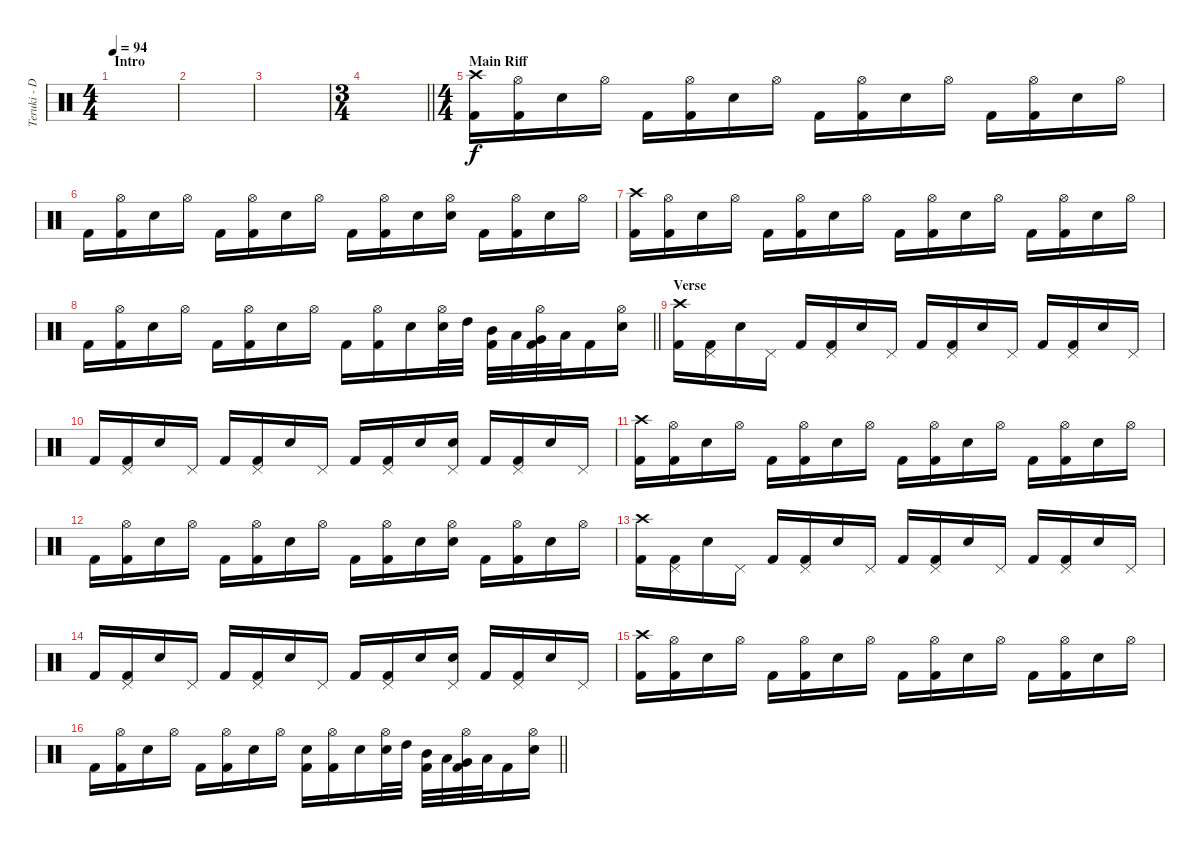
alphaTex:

\track ("Teruki - Drums" "Teruki - D") {instrument percussion}
\staff {score}
\articulation defaults
\ts (4 4)
\section ("" "Intro")
\tempo 94
\clef neutral
\ks c
|
|
|
\ts (3 4)
\barLineRight lightlight
|
\ts (4 4)
\section ("" "Main Riff")
("Crash high (hit)" "Kick (hit) 2").16 ("Hi-Hat (open)" "Kick (hit) 2").16 "Electric Snare (hit)".16 "Hi-Hat (open)".16 "Kick (hit) 2".16 ("Hi-Hat (open)" "Kick (hit) 2").16 "Electric Snare (hit)".16 "Hi-Hat (open)".16 "Kick (hit) 2".16 ("Hi-Hat (open)" "Kick (hit) 2").16 "Electric Snare (hit)".16 "Hi-Hat (open)".16 "Kick (hit) 2".16 ("Hi-Hat (open)" "Kick (hit) 2").16 "Electric Snare (hit)".16 "Hi-Hat (open)".16 |
"Kick (hit) 2".16 ("Hi-Hat (open)" "Kick (hit) 2").16 "Electric Snare (hit)".16 "Hi-Hat (open)".16 "Kick (hit) 2".16 ("Hi-Hat (open)" "Kick (hit) 2").16 "Electric Snare (hit)".16 "Hi-Hat (open)".16 "Kick (hit) 2".16 ("Hi-Hat (open)" "Kick (hit) 2").16 "Electric Snare (hit)".16 ("Hi-Hat (open)" "Electric Snare (hit)").16 "Kick (hit) 2".16 ("Hi-Hat (open)" "Kick (hit) 2").16 "Electric Snare (hit)".16 "Hi-Hat (open)".16 |
("Crash high (hit)" "Kick (hit) 2").16 ("Hi-Hat (open)" "Kick (hit) 2").16 "Electric Snare (hit)".16 "Hi-Hat (open)".16 "Kick (hit) 2".16 ("Hi-Hat (open)" "Kick (hit) 2").16 "Electric Snare (hit)".16 "Hi-Hat (open)".16 "Kick (hit) 2".16 ("Hi-Hat (open)" "Kick (hit) 2").16 "Electric Snare (hit)".16 "Hi-Hat (open)".16 "Kick (hit) 2".16 ("Hi-Hat (open)" "Kick (hit) 2").16 "Electric Snare (hit)".16 "Hi-Hat (open)".16 |
\barLineRight lightlight "Kick (hit) 2".16
("Hi-Hat (open)" "Kick (hit) 2").16 "Electric Snare (hit)".16 "Hi-Hat (open)".16 "Kick (hit) 2".16 ("Hi-Hat (open)" "Kick (hit) 2").16 "Electric Snare (hit)".16 "Hi-Hat (open)".16 "Kick (hit) 2".16 ("Hi-Hat (open)" "Kick (hit) 2").16 "Electric Snare (hit)".16 ("Hi-Hat (open)" "Electric Snare (hit)").32 "High Tom (hit)".32 ("Mid Tom (hit)" "Kick (hit) 2").32 "Low Tom (hit)".32 ("Hi-Hat (open)" "Very Low Tom (hit)" "Kick (hit) 2").32 "Low Floor Tom (hit)".32 "Kick (hit) 2".16 ("Hi-Hat (open)" "Electric Snare (hit)").16 |
\section ("" "Verse")
("Crash high (hit)" "Kick (hit) 2").16 ("Pedal Hi-Hat (hit)" "Kick (hit) 2").16 "Electric Snare (hit)".16 "Pedal Hi-Hat (hit)".16 "Kick (hit) 2".16 ("Pedal Hi-Hat (hit)" "Kick (hit) 2").16 "Electric Snare (hit)".16 "Pedal Hi-Hat (hit)".16 "Kick (hit) 2".16 ("Pedal Hi-Hat (hit)" "Kick (hit) 2").16 "Electric Snare (hit)".16 "Pedal Hi-Hat (hit)".16 "Kick (hit) 2".16 ("Pedal Hi-Hat (hit)" "Kick (hit) 2").16 "Electric Snare (hit)".16 "Pedal Hi-Hat (hit)".16 |
"Kick (hit) 2".16 ("Pedal Hi-Hat (hit)" "Kick (hit) 2").16 "Electric Snare (hit)".16 "Pedal Hi-Hat (hit)".16 "Kick (hit) 2".16 ("Pedal Hi-Hat (hit)" "Kick (hit) 2").16 "Electric Snare (hit)".16 "Pedal Hi-Hat (hit)".16 "Kick (hit) 2".16 ("Pedal Hi-Hat (hit)" "Kick (hit) 2").16 "Electric Snare (hit)".16 ("Pedal Hi-Hat (hit)" "Electric Snare (hit)").16 "Kick (hit) 2".16 ("Pedal Hi-Hat (hit)" "Kick (hit) 2").16 "Electric Snare (hit)".16 "Pedal Hi-Hat (hit)".16 |
("Crash high (hit)" "Kick (hit) 2").16 ("Hi-Hat (open)" "Kick (hit) 2").16 "Electric Snare (hit)".16 "Hi-Hat (open)".16 "Kick (hit) 2".16 ("Hi-Hat (open)" "Kick (hit) 2").16 "Electric Snare (hit)".16 "Hi-Hat (open)".16 "Kick (hit) 2".16 ("Hi-Hat (open)" "Kick (hit) 2").16 "Electric Snare (hit)".16 "Hi-Hat (open)".16 "Kick (hit) 2".16 ("Hi-Hat (open)" "Kick (hit) 2").16 "Electric Snare (hit)".16 "Hi-Hat (open)".16 |
"Kick (hit) 2".16 ("Hi-Hat (open)" "Kick (hit) 2").16 "Electric Snare (hit)".16 "Hi-Hat (open)".16 "Kick (hit) 2".16 ("Hi-Hat (open)" "Kick (hit) 2").16 "Electric Snare (hit)".16 "Hi-Hat (open)".16 "Kick (hit) 2".16 ("Hi-Hat (open)" "Kick (hit) 2").16 "Electric Snare (hit)".16 ("Hi-Hat (open)" "Electric Snare (hit)").16 "Kick (hit) 2".16 ("Hi-Hat (open)" "Kick (hit) 2").16 "Electric Snare (hit)".16 "Hi-Hat (open)".16 |
("Crash high (hit)" "Kick (hit) 2").16 ("Pedal Hi-Hat (hit)" "Kick (hit) 2").16 "Electric Snare (hit)".16 "Pedal Hi-Hat (hit)".16 "Kick (hit) 2".16 ("Pedal Hi-Hat (hit)" "Kick (hit) 2").16 "Electric Snare (hit)".16 "Pedal Hi-Hat (hit)".16 "Kick (hit) 2".16 ("Pedal Hi-Hat (hit)" "Kick (hit) 2").16 "Electric Snare (hit)".16 "Pedal Hi-Hat (hit)".16 "Kick (hit) 2".16 ("Pedal Hi-Hat (hit)" "Kick (hit) 2").16 "Electric Snare (hit)".16 "Pedal Hi-Hat (hit)".16 |
"Kick (hit) 2".16 ("Pedal Hi-Hat (hit)" "Kick (hit) 2").16 "Electric Snare (hit)".16 "Pedal Hi-Hat (hit)".16 "Kick (hit) 2".16 ("Pedal Hi-Hat (hit)" "Kick (hit) 2").16 "Electric Snare (hit)".16 "Pedal Hi-Hat (hit)".16 "Kick (hit) 2".16 ("Pedal Hi-Hat (hit)" "Kick (hit) 2").16 "Electric Snare (hit)".16 ("Pedal Hi-Hat (hit)" "Electric Snare (hit)").16 "Kick (hit) 2".16 ("Pedal Hi-Hat (hit)" "Kick (hit) 2").16 "Electric Snare (hit)".16 "Pedal Hi-Hat (hit)".16 |
("Crash high (hit)" "Kick (hit) 2").16 ("Hi-Hat (open)" "Kick (hit) 2").16 "Electric Snare (hit)".16 "Hi-Hat (open)".16 "Kick (hit) 2".16 ("Hi-Hat (open)" "Kick (hit) 2").16 "Electric Snare (hit)".16 "Hi-Hat (open)".16 "Kick (hit) 2".16 ("Hi-Hat (open)" "Kick (hit) 2").16 "Electric Snare (hit)".16 "Hi-Hat (open)".16 "Kick (hit) 2".16 ("Hi-Hat (open)" "Kick (hit) 2").16 "Electric Snare (hit)".16 "Hi-Hat (open)".16 |
\barLineRight lightlight "Kick (hit) 2".16
("Hi-Hat (open)" "Kick (hit) 2").16 "Electric Snare (hit)".16 "Hi-Hat (open)".16 "Kick (hit) 2".16 ("Hi-Hat (open)" "Kick (hit) 2").16 "Electric Snare (hit)".16 "Hi-Hat (open)".16 ("Electric Snare (hit)" "Kick (hit) 2").16 ("Hi-Hat (open)" "Kick (hit) 2").16 "Electric Snare (hit)".16 ("Hi-Hat (open)" "Electric Snare (hit)").32 "High Tom (hit)".32 ("Mid Tom (hit)" "Kick (hit) 2").32 "Low Tom (hit)".32 ("Hi-Hat (open)" "Very Low Tom (hit)" "Kick (hit) 2").32 "Low Floor Tom (hit)".32 "Kick (hit) 2".16 ("Hi-Hat (open)" "Electric Snare (hit)").16
